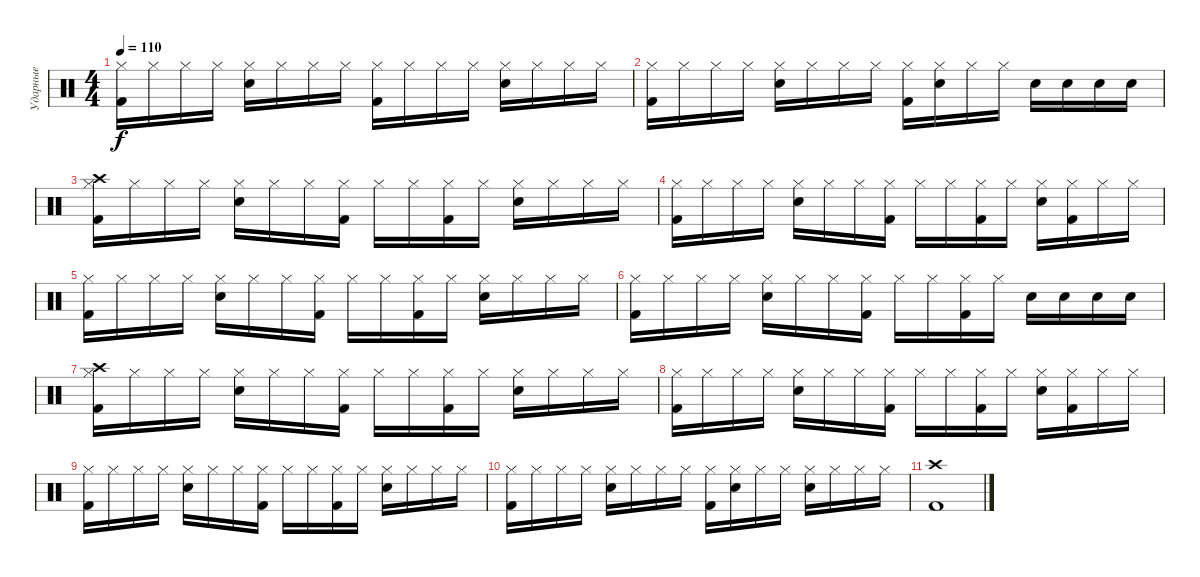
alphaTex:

\track ("Ударные" "Ударные") {instrument percussion}
\staff {score}
\articulation defaults
\ts (4 4)
\tempo 110
\clef neutral
\ks c
("Hi-Hat (closed)" "Kick (hit) 2").16{dy f} "Hi-Hat (closed)".16 "Hi-Hat (closed)".16 "Hi-Hat (closed)".16 ("Hi-Hat (closed)" "Snare (hit) 2").16 "Hi-Hat (closed)".16 "Hi-Hat (closed)".16 "Hi-Hat (closed)".16 ("Hi-Hat (closed)" "Kick (hit) 2").16 "Hi-Hat (closed)".16 "Hi-Hat (closed)".16 "Hi-Hat (closed)".16 ("Hi-Hat (closed)" "Snare (hit) 2").16 "Hi-Hat (closed)".16 "Hi-Hat (closed)".16 "Hi-Hat (closed)".16 |
("Hi-Hat (closed)" "Kick (hit) 2").16 "Hi-Hat (closed)".16 "Hi-Hat (closed)".16 "Hi-Hat (closed)".16 ("Hi-Hat (closed)" "Snare (hit) 2").16 "Hi-Hat (closed)".16 "Hi-Hat (closed)".16 "Hi-Hat (closed)".16 ("Hi-Hat (closed)" "Kick (hit) 2").16 ("Hi-Hat (closed)" "Snare (hit) 2").16 "Hi-Hat (closed)".16 "Hi-Hat (closed)".16 "Snare (hit) 2".16 "Snare (hit) 2".16 "Snare (hit) 2".16 "Snare (hit) 2".16 |
("Crash high (hit)" "Hi-Hat (closed)" "Kick (hit) 2").16 "Hi-Hat (closed)".16 "Hi-Hat (closed)".16 "Hi-Hat (closed)".16 ("Hi-Hat (closed)" "Snare (hit) 2").16 "Hi-Hat (closed)".16 "Hi-Hat (closed)".16 ("Hi-Hat (closed)" "Kick (hit) 2").16 "Hi-Hat (closed)".16 "Hi-Hat (closed)".16 ("Hi-Hat (closed)" "Kick (hit) 2").16 "Hi-Hat (closed)".16 ("Hi-Hat (closed)" "Snare (hit) 2").16 "Hi-Hat (closed)".16 "Hi-Hat (closed)".16 "Hi-Hat (closed)".16 |
("Hi-Hat (closed)" "Kick (hit) 2").16 "Hi-Hat (closed)".16 "Hi-Hat (closed)".16 "Hi-Hat (closed)".16 ("Hi-Hat (closed)" "Snare (hit) 2").16 "Hi-Hat (closed)".16 "Hi-Hat (closed)".16 ("Hi-Hat (closed)" "Kick (hit) 2").16 "Hi-Hat (closed)".16 "Hi-Hat (closed)".16 ("Hi-Hat (closed)" "Kick (hit) 2").16 "Hi-Hat (closed)".16 ("Hi-Hat (closed)" "Snare (hit) 2").16 ("Hi-Hat (closed)" "Kick (hit) 2").16 "Hi-Hat (closed)".16 "Hi-Hat (closed)".16 |
("Hi-Hat (closed)" "Kick (hit) 2").16 "Hi-Hat (closed)".16 "Hi-Hat (closed)".16 "Hi-Hat (closed)".16 ("Hi-Hat (closed)" "Snare (hit) 2").16 "Hi-Hat (closed)".16 "Hi-Hat (closed)".16 ("Hi-Hat (closed)" "Kick (hit) 2").16 "Hi-Hat (closed)".16 "Hi-Hat (closed)".16 ("Hi-Hat (closed)" "Kick (hit) 2").16 "Hi-Hat (closed)".16 ("Hi-Hat (closed)" "Snare (hit) 2").16 "Hi-Hat (closed)".16 "Hi-Hat (closed)".16 "Hi-Hat (closed)".16 |
("Hi-Hat (closed)" "Kick (hit) 2").16 "Hi-Hat (closed)".16 "Hi-Hat (closed)".16 "Hi-Hat (closed)".16 ("Hi-Hat (closed)" "Snare (hit) 2").16 "Hi-Hat (closed)".16 "Hi-Hat (closed)".16 ("Hi-Hat (closed)" "Kick (hit) 2").16 "Hi-Hat (closed)".16 "Hi-Hat (closed)".16 ("Hi-Hat (closed)" "Kick (hit) 2").16 "Hi-Hat (closed)".16 "Snare (hit) 2".16 "Snare (hit) 2".16 "Snare (hit) 2".16 "Snare (hit) 2".16 |
("Crash high (hit)" "Hi-Hat (closed)" "Kick (hit) 2").16 "Hi-Hat (closed)".16 "Hi-Hat (closed)".16 "Hi-Hat (closed)".16 ("Hi-Hat (closed)" "Snare (hit) 2").16 "Hi-Hat (closed)".16 "Hi-Hat (closed)".16 ("Hi-Hat (closed)" "Kick (hit) 2").16 "Hi-Hat (closed)".16 "Hi-Hat (closed)".16 ("Hi-Hat (closed)" "Kick (hit) 2").16 "Hi-Hat (closed)".16 ("Hi-Hat (closed)" "Snare (hit) 2").16 "Hi-Hat (closed)".16 "Hi-Hat (closed)".16 "Hi-Hat (closed)".16 |
("Hi-Hat (closed)" "Kick (hit) 2").16 "Hi-Hat (closed)".16 "Hi-Hat (closed)".16 "Hi-Hat (closed)".16 ("Hi-Hat (closed)" "Snare (hit) 2").16 "Hi-Hat (closed)".16 "Hi-Hat (closed)".16 ("Hi-Hat (closed)" "Kick (hit) 2").16 "Hi-Hat (closed)".16 "Hi-Hat (closed)".16 ("Hi-Hat (closed)" "Kick (hit) 2").16 "Hi-Hat (closed)".16 ("Hi-Hat (closed)" "Snare (hit) 2").16 ("Hi-Hat (closed)" "Kick (hit) 2").16 "Hi-Hat (closed)".16 "Hi-Hat (closed)".16 |
("Hi-Hat (closed)" "Kick (hit) 2").16 "Hi-Hat (closed)".16 "Hi-Hat (closed)".16 "Hi-Hat (closed)".16 ("Hi-Hat (closed)" "Snare (hit) 2").16 "Hi-Hat (closed)".16 "Hi-Hat (closed)".16 ("Hi-Hat (closed)" "Kick (hit) 2").16 "Hi-Hat (closed)".16 "Hi-Hat (closed)".16 ("Hi-Hat (closed)" "Kick (hit) 2").16 "Hi-Hat (closed)".16 ("Hi-Hat (closed)" "Snare (hit) 2").16 "Hi-Hat (closed)".16 "Hi-Hat (closed)".16 "Hi-Hat (closed)".16 |
("Hi-Hat (closed)" "Kick (hit) 2").16 "Hi-Hat (closed)".16 "Hi-Hat (closed)".16 "Hi-Hat (closed)".16 ("Hi-Hat (closed)" "Snare (hit) 2").16 "Hi-Hat (closed)".16 "Hi-Hat (closed)".16 "Hi-Hat (closed)".16 ("Hi-Hat (closed)" "Kick (hit) 2").16 ("Hi-Hat (closed)" "Snare (hit) 2").16 "Hi-Hat (closed)".16 "Hi-Hat (closed)".16 ("Hi-Hat (closed)" "Snare (hit) 2").16 "Hi-Hat (closed)".16 "Hi-Hat (closed)".16 "Hi-Hat (closed)".16 |
("Crash high (hit)" "Kick (hit) 2").1
